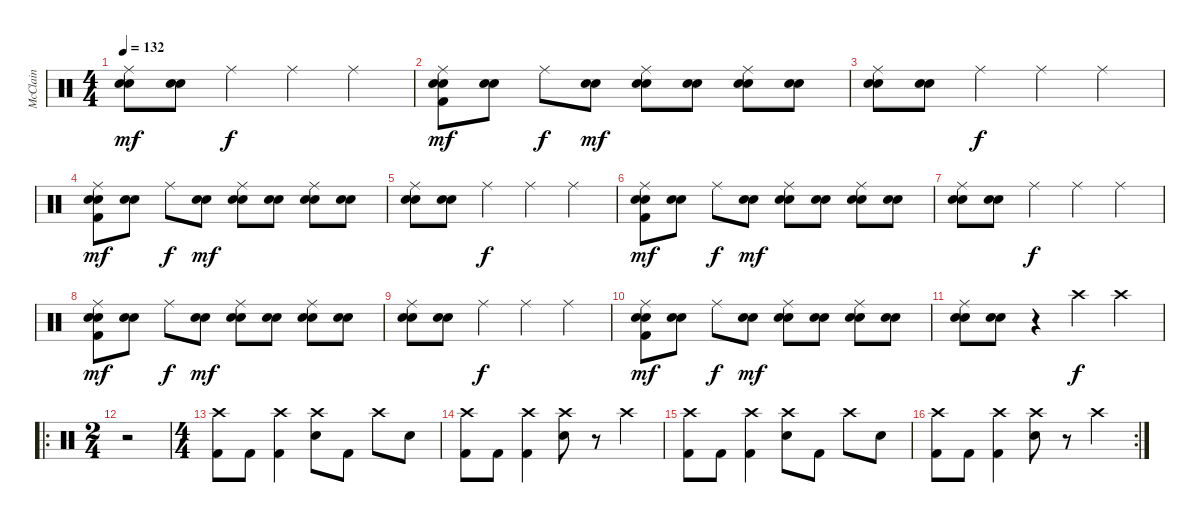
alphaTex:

\track ("McClain" "McClain") {instrument percussion}
\staff {score}
\articulation defaults
\ts (4 4)
\tempo 132
\clef neutral
\ks c
("Ride (middle)" "Snare (hit) 2" "Electric Snare (hit)").8{dy mf} ("Snare (hit) 2" "Electric Snare (hit)").8 "Ride (middle)".4{dy f} "Ride (middle)".4 "Ride (middle)".4 |
("Ride (middle)" "Snare (hit) 2" "Electric Snare (hit)" "Kick (hit) 2").8{dy mf} ("Snare (hit) 2" "Electric Snare (hit)").8 "Ride (middle)".8{dy f} ("Snare (hit) 2" "Electric Snare (hit)").8{dy mf} ("Ride (middle)" "Snare (hit) 2" "Electric Snare (hit)").8 ("Snare (hit) 2" "Electric Snare (hit)").8 ("Ride (middle)" "Snare (hit) 2" "Electric Snare (hit)").8 ("Snare (hit) 2" "Electric Snare (hit)").8 |
("Ride (middle)" "Snare (hit) 2" "Electric Snare (hit)").8 ("Snare (hit) 2" "Electric Snare (hit)").8 "Ride (middle)".4{dy f} "Ride (middle)".4 "Ride (middle)".4 |
("Ride (middle)" "Snare (hit) 2" "Electric Snare (hit)" "Kick (hit) 2").8{dy mf} ("Snare (hit) 2" "Electric Snare (hit)").8 "Ride (middle)".8{dy f} ("Snare (hit) 2" "Electric Snare (hit)").8{dy mf} ("Ride (middle)" "Snare (hit) 2" "Electric Snare (hit)").8 ("Snare (hit) 2" "Electric Snare (hit)").8 ("Ride (middle)" "Snare (hit) 2" "Electric Snare (hit)").8 ("Snare (hit) 2" "Electric Snare (hit)").8 |
("Ride (middle)" "Snare (hit) 2" "Electric Snare (hit)").8 ("Snare (hit) 2" "Electric Snare (hit)").8 "Ride (middle)".4{dy f} "Ride (middle)".4 "Ride (middle)".4 |
("Ride (middle)" "Snare (hit) 2" "Electric Snare (hit)" "Kick (hit) 2").8{dy mf} ("Snare (hit) 2" "Electric Snare (hit)").8 "Ride (middle)".8{dy f} ("Snare (hit) 2" "Electric Snare (hit)").8{dy mf} ("Ride (middle)" "Snare (hit) 2" "Electric Snare (hit)").8 ("Snare (hit) 2" "Electric Snare (hit)").8 ("Ride (middle)" "Snare (hit) 2" "Electric Snare (hit)").8 ("Snare (hit) 2" "Electric Snare (hit)").8 |
("Ride (middle)" "Snare (hit) 2" "Electric Snare (hit)").8 ("Snare (hit) 2" "Electric Snare (hit)").8 "Ride (middle)".4{dy f} "Ride (middle)".4 "Ride (middle)".4 |
("Ride (middle)" "Snare (hit) 2" "Electric Snare (hit)" "Kick (hit) 2").8{dy mf} ("Snare (hit) 2" "Electric Snare (hit)").8 "Ride (middle)".8{dy f} ("Snare (hit) 2" "Electric Snare (hit)").8{dy mf} ("Ride (middle)" "Snare (hit) 2" "Electric Snare (hit)").8 ("Snare (hit) 2" "Electric Snare (hit)").8 ("Ride (middle)" "Snare (hit) 2" "Electric Snare (hit)").8 ("Snare (hit) 2" "Electric Snare (hit)").8 |
("Ride (middle)" "Snare (hit) 2" "Electric Snare (hit)").8 ("Snare (hit) 2" "Electric Snare (hit)").8 "Ride (middle)".4{dy f} "Ride (middle)".4 "Ride (middle)".4 |
("Ride (middle)" "Snare (hit) 2" "Electric Snare (hit)" "Kick (hit) 2").8{dy mf} ("Snare (hit) 2" "Electric Snare (hit)").8 "Ride (middle)".8{dy f} ("Snare (hit) 2" "Electric Snare (hit)").8{dy mf} ("Ride (middle)" "Snare (hit) 2" "Electric Snare (hit)").8 ("Snare (hit) 2" "Electric Snare (hit)").8 ("Ride (middle)" "Snare (hit) 2" "Electric Snare (hit)").8 ("Snare (hit) 2" "Electric Snare (hit)").8 |
("Ride (middle)" "Snare (hit) 2" "Electric Snare (hit)").8 ("Snare (hit) 2" "Electric Snare (hit)").8 r.4 "Crash high (hit)".4{dy f} "Crash high (hit)".4 |
\ro
\ts (2 4)
r.2 |
\ts (4 4)
("Crash high (hit)" "Kick (hit) 2").8 "Kick (hit) 2".8 ("Crash high (hit)" "Kick (hit) 2").4 ("Crash high (hit)" "Electric Snare (hit)").8 "Kick (hit) 2".8 "Crash high (hit)".8 "Electric Snare (hit)".8 |
("Crash high (hit)" "Kick (hit) 2").8 "Kick (hit) 2".8 ("Crash high (hit)" "Kick (hit) 2").4 ("Crash high (hit)" "Electric Snare (hit)").8 r.8 "Crash high (hit)".4 |
("Crash high (hit)" "Kick (hit) 2").8 "Kick (hit) 2".8 ("Crash high (hit)" "Kick (hit) 2").4 ("Crash high (hit)" "Electric Snare (hit)").8 "Kick (hit) 2".8 "Crash high (hit)".8 "Electric Snare (hit)".8 |
\rc 2
("Crash high (hit)" "Kick (hit) 2").8 "Kick (hit) 2".8 ("Crash high (hit)" "Kick (hit) 2").4 ("Crash high (hit)" "Electric Snare (hit)").8 r.8 "Crash high (hit)".4
